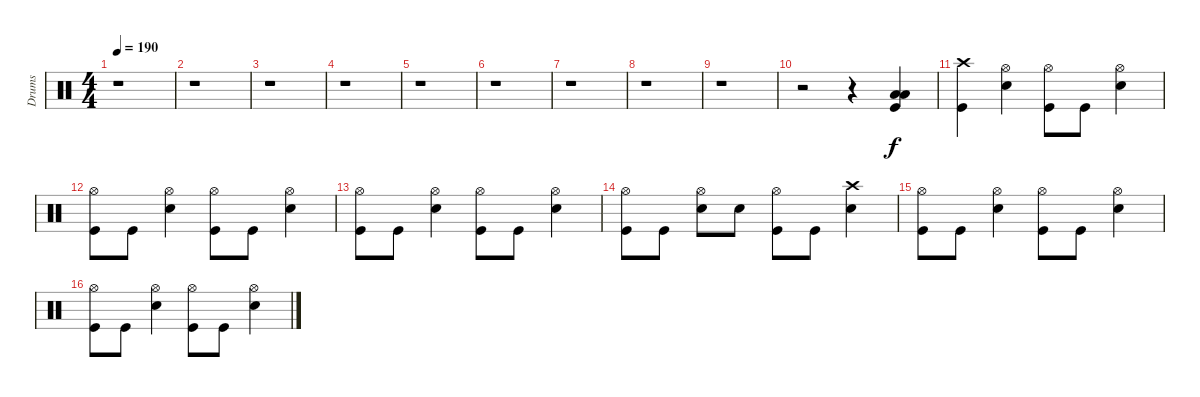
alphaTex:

\track ("Drums" "Drums") {instrument percussion}
\staff {score}
\articulation defaults
\ts (4 4)
\tempo 190
\clef neutral
\ks c
r.1{dy f} |
r.1 |
r.1 |
r.1 |
r.1 |
r.1 |
r.1 |
r.1 |
r.1 |
r.2 r.4 ("Low Tom (hit)" "Low Floor Tom (hit)" "Kick (hit)").4 |
("Kick (hit)" "Crash high (hit)").4 ("Electric Snare (hit)" "Hi-Hat (open)").4 ("Kick (hit)" "Hi-Hat (open)").8 "Kick (hit)".8 ("Electric Snare (hit)" "Hi-Hat (open)").4 |
("Kick (hit)" "Hi-Hat (open)").8 "Kick (hit)".8 ("Electric Snare (hit)" "Hi-Hat (open)").4 ("Kick (hit)" "Hi-Hat (open)").8 "Kick (hit)".8 ("Electric Snare (hit)" "Hi-Hat (open)").4 |
("Kick (hit)" "Hi-Hat (open)").8 "Kick (hit)".8 ("Electric Snare (hit)" "Hi-Hat (open)").4 ("Kick (hit)" "Hi-Hat (open)").8 "Kick (hit)".8 ("Electric Snare (hit)" "Hi-Hat (open)").4 |
("Kick (hit)" "Hi-Hat (open)").8 "Kick (hit)".8 ("Electric Snare (hit)" "Hi-Hat (open)").8 "Electric Snare (hit)".8 ("Kick (hit)" "Hi-Hat (open)").8 "Kick (hit)".8 ("Electric Snare (hit)" "Crash high (hit)").4 |
("Kick (hit)" "Hi-Hat (open)").8 "Kick (hit)".8 ("Electric Snare (hit)" "Hi-Hat (open)").4 ("Kick (hit)" "Hi-Hat (open)").8 "Kick (hit)".8 ("Electric Snare (hit)" "Hi-Hat (open)").4 |
("Kick (hit)" "Hi-Hat (open)").8 "Kick (hit)".8 ("Electric Snare (hit)" "Hi-Hat (open)").4 ("Kick (hit)" "Hi-Hat (open)").8 "Kick (hit)".8 ("Electric Snare (hit)" "Hi-Hat (open)").4
